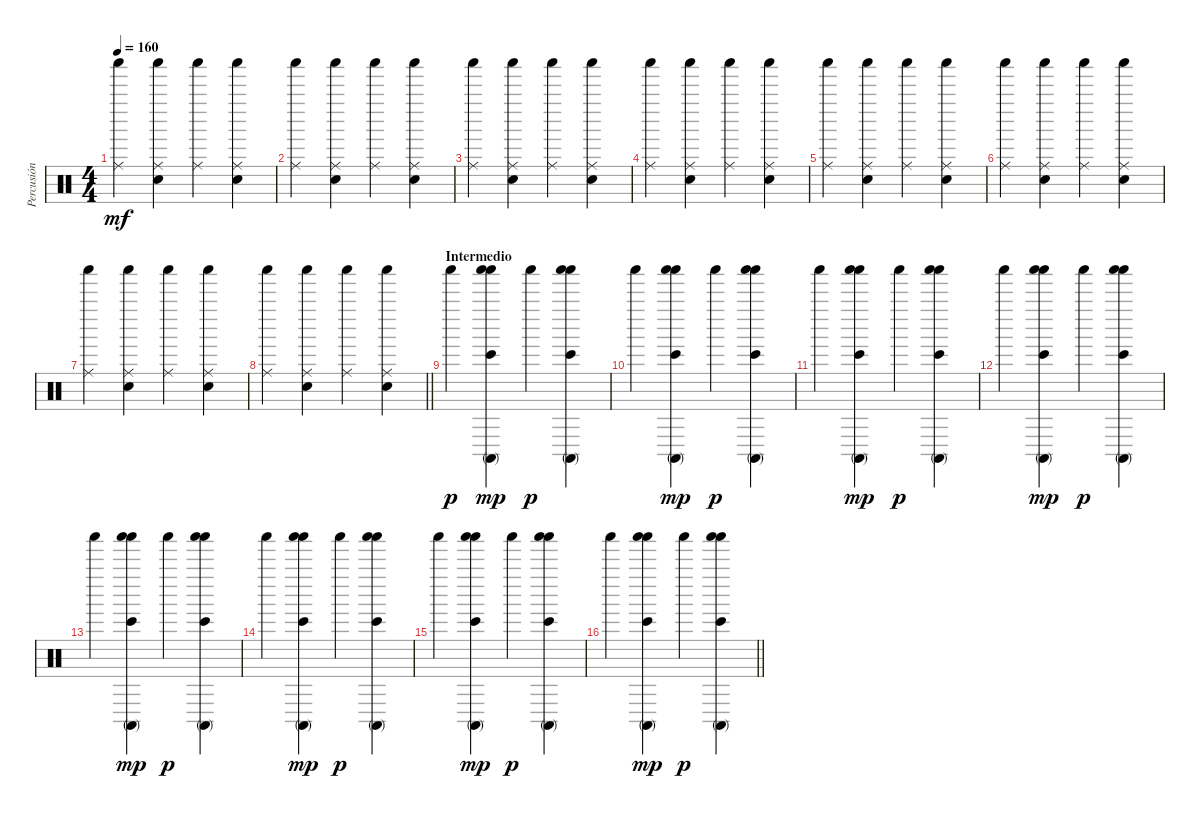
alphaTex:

\track ("Percusión" "Percusión") {instrument percussion}
\staff {score}
\articulation defaults
\ts (4 4)
\tempo 160
\clef neutral
\ks c
("Shaker (hit)" "Ride (middle)").4{dy mf} ("Shaker (hit)" "Snare (hit) 2" "Ride (middle)").4 ("Shaker (hit)" "Ride (middle)").4 ("Shaker (hit)" "Snare (hit) 2" "Ride (middle)").4 |
("Shaker (hit)" "Ride (middle)").4 ("Shaker (hit)" "Snare (hit) 2" "Ride (middle)").4 ("Shaker (hit)" "Ride (middle)").4 ("Shaker (hit)" "Snare (hit) 2" "Ride (middle)").4 |
("Shaker (hit)" "Ride (middle)").4 ("Shaker (hit)" "Snare (hit) 2" "Ride (middle)").4 ("Shaker (hit)" "Ride (middle)").4 ("Shaker (hit)" "Snare (hit) 2" "Ride (middle)").4 |
("Shaker (hit)" "Ride (middle)").4 ("Shaker (hit)" "Snare (hit) 2" "Ride (middle)").4 ("Shaker (hit)" "Ride (middle)").4 ("Shaker (hit)" "Snare (hit) 2" "Ride (middle)").4 |
("Shaker (hit)" "Ride (middle)").4 ("Shaker (hit)" "Snare (hit) 2" "Ride (middle)").4 ("Shaker (hit)" "Ride (middle)").4 ("Shaker (hit)" "Snare (hit) 2" "Ride (middle)").4 |
("Shaker (hit)" "Ride (middle)").4 ("Shaker (hit)" "Snare (hit) 2" "Ride (middle)").4 ("Shaker (hit)" "Ride (middle)").4 ("Shaker (hit)" "Snare (hit) 2" "Ride (middle)").4 |
("Shaker (hit)" "Ride (middle)").4 ("Shaker (hit)" "Snare (hit) 2" "Ride (middle)").4 ("Shaker (hit)" "Ride (middle)").4 ("Shaker (hit)" "Snare (hit) 2" "Ride (middle)").4 |
\barLineRight lightlight
("Shaker (hit)" "Ride (middle)").4 ("Shaker (hit)" "Snare (hit) 2" "Ride (middle)").4 ("Shaker (hit)" "Ride (middle)").4 ("Shaker (hit)" "Snare (hit) 2" "Ride (middle)").4 |
\section ("" "Intermedio")
"Shaker (hit)".4{dy p} ("Shaker (hit)" "Conga high (mute)" "Bongo High (hit)" "Shaker (hit)").4{dy mp} "Shaker (hit)".4{dy p} ("Shaker (hit)" "Conga high (mute)" "Bongo High (hit)" "Shaker (hit)").4 |
"Shaker (hit)".4 ("Shaker (hit)" "Conga high (mute)" "Bongo High (hit)" "Shaker (hit)").4{dy mp} "Shaker (hit)".4{dy p} ("Shaker (hit)" "Conga high (mute)" "Bongo High (hit)" "Shaker (hit)").4 |
"Shaker (hit)".4 ("Shaker (hit)" "Conga high (mute)" "Bongo High (hit)" "Shaker (hit)").4{dy mp} "Shaker (hit)".4{dy p} ("Shaker (hit)" "Conga high (mute)" "Bongo High (hit)" "Shaker (hit)").4 |
"Shaker (hit)".4 ("Shaker (hit)" "Conga high (mute)" "Bongo High (hit)" "Shaker (hit)").4{dy mp} "Shaker (hit)".4{dy p} ("Shaker (hit)" "Conga high (mute)" "Bongo High (hit)" "Shaker (hit)").4 |
"Shaker (hit)".4 ("Shaker (hit)" "Conga high (mute)" "Bongo High (hit)" "Shaker (hit)").4{dy mp} "Shaker (hit)".4{dy p} ("Shaker (hit)" "Conga high (mute)" "Bongo High (hit)" "Shaker (hit)").4 |
"Shaker (hit)".4 ("Shaker (hit)" "Conga high (mute)" "Bongo High (hit)" "Shaker (hit)").4{dy mp} "Shaker (hit)".4{dy p} ("Shaker (hit)" "Conga high (mute)" "Bongo High (hit)" "Shaker (hit)").4 |
"Shaker (hit)".4 ("Shaker (hit)" "Conga high (mute)" "Bongo High (hit)" "Shaker (hit)").4{dy mp} "Shaker (hit)".4{dy p} ("Shaker (hit)" "Conga high (mute)" "Bongo High (hit)" "Shaker (hit)").4 |
\barLineRight lightlight "Shaker (hit)".4
("Shaker (hit)" "Conga high (mute)" "Bongo High (hit)" "Shaker (hit)").4{dy mp} "Shaker (hit)".4{dy p} ("Shaker (hit)" "Conga high (mute)" "Bongo High (hit)" "Shaker (hit)").4
